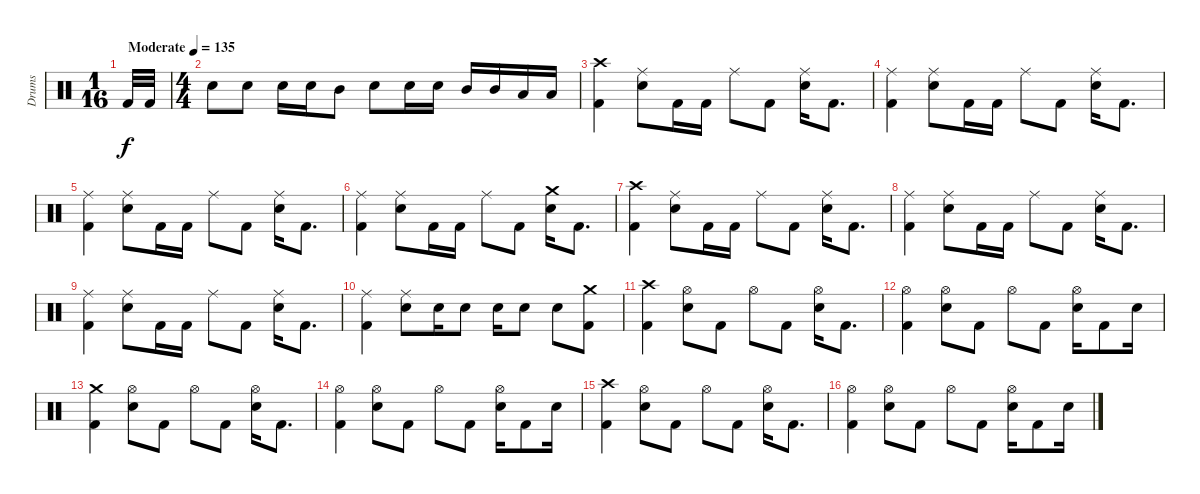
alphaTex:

\track ("Drums" "Drums") {instrument percussion}
\staff {score}
\articulation defaults
\ts (1 16)
\tempo (135 "Moderate")
\clef neutral
\ks c "Kick (hit) 2".32{dy f} "Kick (hit) 2".32
|
\ts (4 4)
"Electric Snare (hit)".8 "Electric Snare (hit)".8 "Electric Snare (hit)".16 "Electric Snare (hit)".16 "Mid Tom (hit)".8 "Electric Snare (hit)".8 "Electric Snare (hit)".16 "Electric Snare (hit)".16 "Mid Tom (hit)".16 "Mid Tom (hit)".16 "Low Tom (hit)".16 "Low Tom (hit)".16 |
("Crash high (hit)" "Kick (hit) 2").4 ("Ride (middle)" "Electric Snare (hit)").8 "Kick (hit) 2".16 "Kick (hit) 2".16 "Ride (middle)".8 "Kick (hit) 2".8 ("Ride (middle)" "Electric Snare (hit)").16 "Kick (hit) 2".8{d} |
("Ride (middle)" "Kick (hit) 2").4 ("Ride (middle)" "Electric Snare (hit)").8 "Kick (hit) 2".16 "Kick (hit) 2".16 "Ride (middle)".8 "Kick (hit) 2".8 ("Ride (middle)" "Electric Snare (hit)").16 "Kick (hit) 2".8{d} |
("Ride (middle)" "Kick (hit) 2").4 ("Ride (middle)" "Electric Snare (hit)").8 "Kick (hit) 2".16 "Kick (hit) 2".16 "Ride (middle)".8 "Kick (hit) 2".8 ("Ride (middle)" "Electric Snare (hit)").16 "Kick (hit) 2".8{d} |
("Ride (middle)" "Kick (hit) 2").4 ("Ride (middle)" "Electric Snare (hit)").8 "Kick (hit) 2".16 "Kick (hit) 2".16 "Ride (middle)".8 "Kick (hit) 2".8 ("Crash medium (hit)" "Electric Snare (hit)").16 "Kick (hit) 2".8{d} |
("Crash high (hit)" "Kick (hit) 2").4 ("Ride (middle)" "Electric Snare (hit)").8 "Kick (hit) 2".16 "Kick (hit) 2".16 "Ride (middle)".8 "Kick (hit) 2".8 ("Ride (middle)" "Electric Snare (hit)").16 "Kick (hit) 2".8{d} |
("Ride (middle)" "Kick (hit) 2").4 ("Ride (middle)" "Electric Snare (hit)").8 "Kick (hit) 2".16 "Kick (hit) 2".16 "Ride (middle)".8 "Kick (hit) 2".8 ("Ride (middle)" "Electric Snare (hit)").16 "Kick (hit) 2".8{d} |
("Ride (middle)" "Kick (hit) 2").4 ("Ride (middle)" "Electric Snare (hit)").8 "Kick (hit) 2".16 "Kick (hit) 2".16 "Ride (middle)".8 "Kick (hit) 2".8 ("Ride (middle)" "Electric Snare (hit)").16 "Kick (hit) 2".8{d} |
("Ride (middle)" "Kick (hit) 2").4 ("Ride (middle)" "Electric Snare (hit)").8 "Electric Snare (hit)".16 "Electric Snare (hit)".8 "Electric Snare (hit)".16 "Electric Snare (hit)".8 "Electric Snare (hit)".8 ("Crash medium (hit)" "Kick (hit) 2").8 |
("Crash high (hit)" "Kick (hit) 2").4 ("Hi-Hat (open)" "Electric Snare (hit)").8 "Kick (hit) 2".8 "Hi-Hat (open)".8 "Kick (hit) 2".8 ("Hi-Hat (open)" "Electric Snare (hit)").16 "Kick (hit) 2".8{d} |
("Hi-Hat (open)" "Kick (hit) 2").4 ("Hi-Hat (open)" "Electric Snare (hit)").8 "Kick (hit) 2".8 "Hi-Hat (open)".8 "Kick (hit) 2".8 ("Hi-Hat (open)" "Electric Snare (hit)").16 "Kick (hit) 2".8 "Electric Snare (hit)".16 |
("Crash medium (hit)" "Kick (hit) 2").4 ("Hi-Hat (open)" "Electric Snare (hit)").8 "Kick (hit) 2".8 "Hi-Hat (open)".8 "Kick (hit) 2".8 ("Hi-Hat (open)" "Electric Snare (hit)").16 "Kick (hit) 2".8{d} |
("Hi-Hat (open)" "Kick (hit) 2").4 ("Hi-Hat (open)" "Electric Snare (hit)").8 "Kick (hit) 2".8 "Hi-Hat (open)".8 "Kick (hit) 2".8 ("Hi-Hat (open)" "Electric Snare (hit)").16 "Kick (hit) 2".8 "Electric Snare (hit)".16 |
("Crash high (hit)" "Kick (hit) 2").4 ("Hi-Hat (open)" "Electric Snare (hit)").8 "Kick (hit) 2".8 "Hi-Hat (open)".8 "Kick (hit) 2".8 ("Hi-Hat (open)" "Electric Snare (hit)").16 "Kick (hit) 2".8{d} |
("Hi-Hat (open)" "Kick (hit) 2").4 ("Hi-Hat (open)" "Electric Snare (hit)").8 "Kick (hit) 2".8 "Hi-Hat (open)".8 "Kick (hit) 2".8 ("Hi-Hat (open)" "Electric Snare (hit)").16 "Kick (hit) 2".8 "Electric Snare (hit)".16
